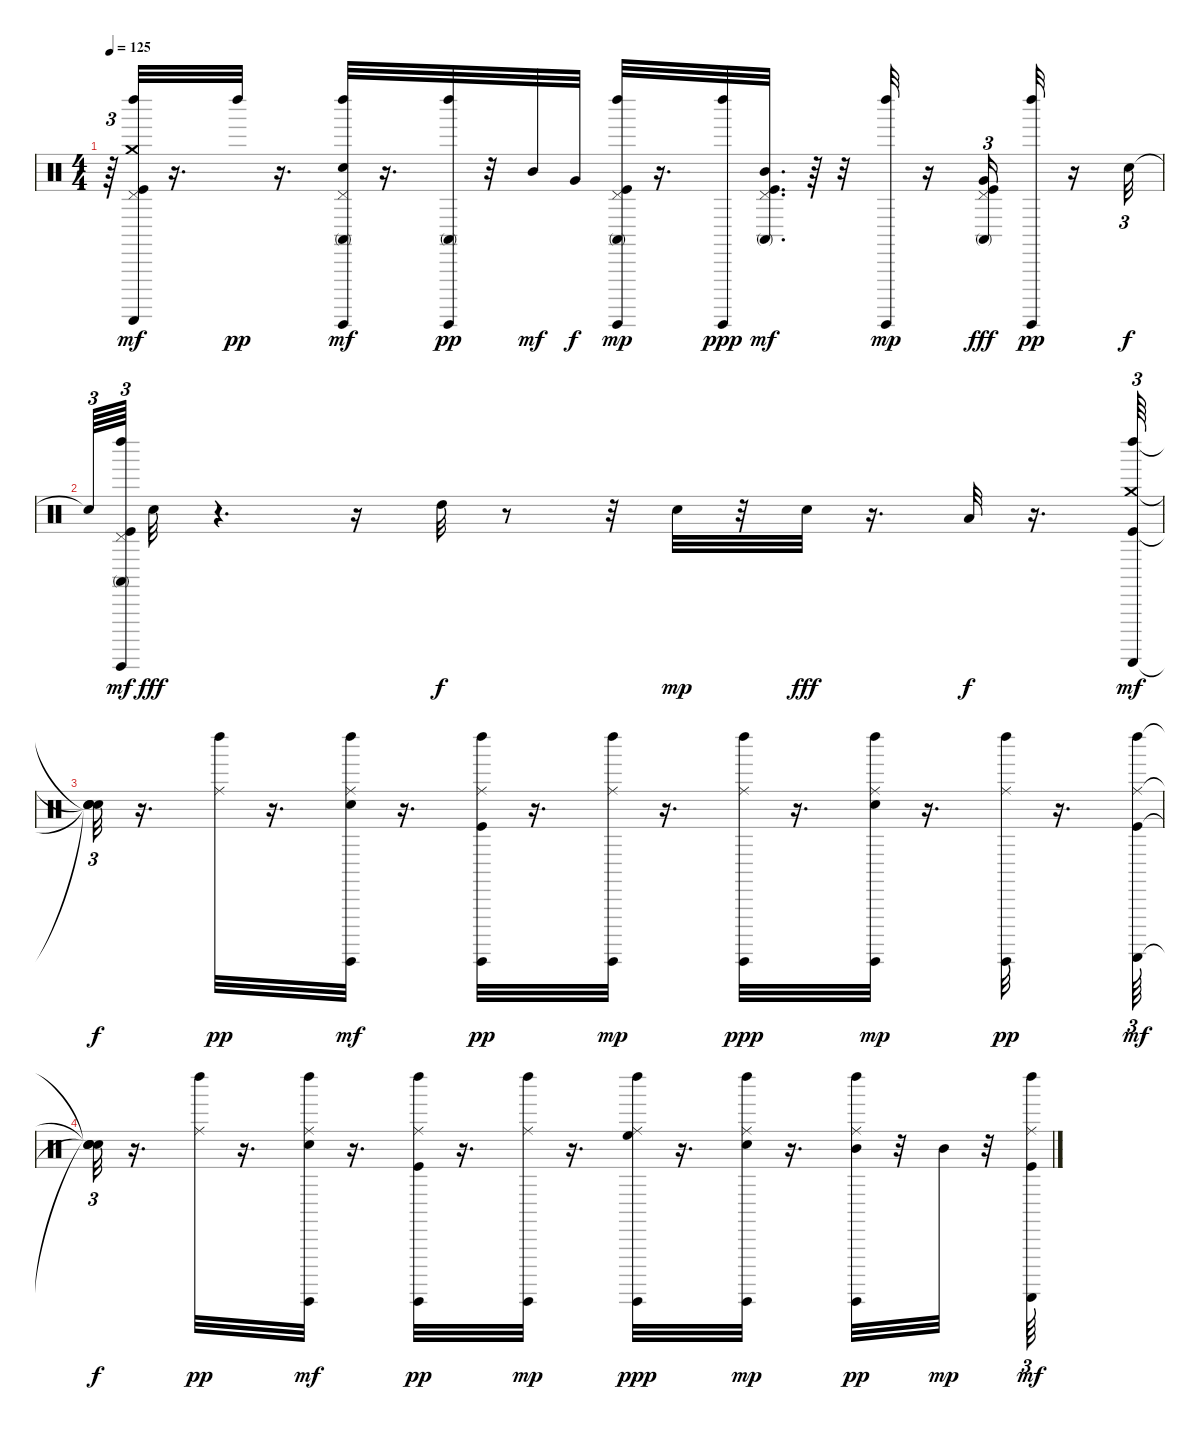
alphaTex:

\track "" {instrument percussion}
\staff {score}
\articulation defaults
\ts (4 4)
\tempo 125
\clef neutral
\ks c
r.64{tu (3 2) dy pp} ("Pedal Hi-Hat (hit)" "Crash medium (hit)" "Left Maraca (hit)" "Kick (hit)" "Guiro (scrap-return)").32{dy mf} r.16{d} "Left Maraca (hit)".32{dy pp} r.16{d} ("Electric Snare (hit)" "Left Maraca (hit)" "Conga high (mute)" "Pedal Hi-Hat (hit)" "Guiro (hit)").32{dy mf} r.16{d} ("Conga high (mute)" "Left Maraca (hit)" "Guiro (hit)").32{dy pp} r.32 "Mid Tom (hit)".32{dy mf} "Very Low Tom (hit)".32{dy f} ("Pedal Hi-Hat (hit)" "Conga high (mute)" "Left Maraca (hit)" "Kick (hit)" "Guiro (hit)").32{dy mp} r.16{d} ("Left Maraca (hit)" "Guiro (hit)").32{dy ppp} ("Kick (hit)" "Mid Tom (hit)" "Conga high (mute)" "Pedal Hi-Hat (hit)").32{d dy mf} r.64 r.32 ("Left Maraca (hit)" "Guiro (hit)").32{dy mp} r.16 ("Pedal Hi-Hat (hit)" "Conga high (mute)" "Very Low Tom (hit)" "Kick (hit)").16{tu (3 2) dy fff} ("Left Maraca (hit)" "Guiro (hit)").32{dy pp} r.16 "Electric Snare (hit)".32{tu (3 2) dy f} |
"Snare (hit)"{t}.64{tu (3 2)} ("Left Maraca (hit)" "Pedal Hi-Hat (hit)" "Conga high (mute)" "Kick (hit)" "Guiro (hit)").64{tu (3 2) dy mf beam splitsecondary} "Electric Snare (hit)".32{dy fff} r.4{d} r.16 "High Tom (hit)".32{dy f} r.8 r.32 "Electric Snare (hit)".32{dy mp} r.32 "Electric Snare (hit)".32{dy fff} r.16{d} "Low Tom (hit)".32{dy f} r.16{d} ("Left Maraca (hit)" "Crash medium (hit)" "Kick (hit)" "Guiro (scrap-return)").64{tu (3 2) dy mf} |
("Snare (hit)"{t} "Snare (hit)"{t} "Snare (hit)"{t} "Snare (hit)"{t}).32{tu (3 2) dy f} r.16{d} ("Left Maraca (hit)" "Ride (middle)").32{dy pp} r.16{d} ("Ride (middle)" "Electric Snare (hit)" "Left Maraca (hit)" "Guiro (hit)").32{dy mf} r.16{d} ("Kick (hit)" "Left Maraca (hit)" "Ride (middle)" "Guiro (hit)").32{dy pp} r.16{d} ("Left Maraca (hit)" "Ride (middle)" "Guiro (hit)").32{dy mp} r.16{d} ("Ride (middle)" "Left Maraca (hit)" "Guiro (hit)").32{dy ppp} r.16{d} ("Electric Snare (hit)" "Left Maraca (hit)" "Ride (middle)" "Guiro (hit)").32{dy mp} r.16{d} ("Left Maraca (hit)" "Ride (middle)" "Guiro (hit)").32{dy pp} r.16{d} ("Kick (hit)" "Left Maraca (hit)" "Ride (middle)" "Guiro (scrap-return)").64{tu (3 2) dy mf} |
("Snare (hit)"{t} "Snare (hit)"{t} "Snare (hit)"{t} "Snare (hit)"{t}).32{tu (3 2) dy f} r.16{d} ("Left Maraca (hit)" "Ride (middle)").32{dy pp} r.16{d} ("Electric Snare (hit)" "Left Maraca (hit)" "Ride (middle)" "Guiro (hit)").32{dy mf} r.16{d} ("Left Maraca (hit)" "Ride (middle)" "Kick (hit)" "Guiro (hit)").32{dy pp} r.16{d} ("Left Maraca (hit)" "Ride (middle)" "Guiro (hit)").32{dy mp} r.16{d} ("Ride (middle)" "High Floor Tom (hit)" "Left Maraca (hit)" "Guiro (hit)").32{dy ppp} r.16{d} ("Electric Snare (hit)" "Left Maraca (hit)" "Ride (middle)" "Guiro (hit)").32{dy mp} r.16{d} ("Mid Tom (hit)" "Ride (middle)" "Left Maraca (hit)" "Guiro (hit)").32{dy pp} r.32 "Mid Tom (hit)".32{dy mp} r.32 ("Ride (middle)" "Kick (hit)" "Left Maraca (hit)" "Guiro (scrap-return)").64{tu (3 2) dy mf}
